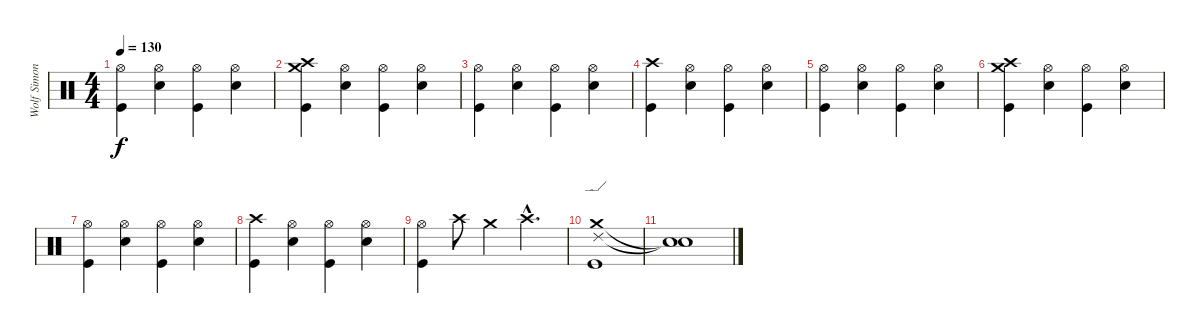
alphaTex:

\track ("Wolf Simon" "Wolf Simon") {instrument percussion}
\staff {score}
\articulation defaults
\ts (4 4)
\tempo 130
\clef neutral
\ks c
("Hi-Hat (open)" "Kick (hit)").4{dy f} ("Hi-Hat (open)" "Electric Snare (hit)").4 ("Hi-Hat (open)" "Kick (hit)").4 ("Hi-Hat (open)" "Electric Snare (hit)").4 |
("Crash medium (hit)" "Crash high (hit)" "Kick (hit)").4 ("Hi-Hat (open)" "Electric Snare (hit)").4 ("Hi-Hat (open)" "Kick (hit)").4 ("Hi-Hat (open)" "Electric Snare (hit)").4 |
("Hi-Hat (open)" "Kick (hit)").4 ("Hi-Hat (open)" "Electric Snare (hit)").4 ("Hi-Hat (open)" "Kick (hit)").4 ("Hi-Hat (open)" "Electric Snare (hit)").4 |
("Crash high (hit)" "Kick (hit)").4 ("Hi-Hat (open)" "Electric Snare (hit)").4 ("Hi-Hat (open)" "Kick (hit)").4 ("Hi-Hat (open)" "Electric Snare (hit)").4 |
("Hi-Hat (open)" "Kick (hit)").4 ("Hi-Hat (open)" "Electric Snare (hit)").4 ("Hi-Hat (open)" "Kick (hit)").4 ("Hi-Hat (open)" "Electric Snare (hit)").4 |
("Crash medium (hit)" "Crash high (hit)" "Kick (hit)").4 ("Hi-Hat (open)" "Electric Snare (hit)").4 ("Hi-Hat (open)" "Kick (hit)").4 ("Hi-Hat (open)" "Electric Snare (hit)").4 |
("Hi-Hat (open)" "Kick (hit)").4 ("Hi-Hat (open)" "Electric Snare (hit)").4 ("Hi-Hat (open)" "Kick (hit)").4 ("Hi-Hat (open)" "Electric Snare (hit)").4 |
("Crash high (hit)" "Kick (hit)").4 ("Hi-Hat (open)" "Electric Snare (hit)").4 ("Hi-Hat (open)" "Kick (hit)").4 ("Hi-Hat (open)" "Electric Snare (hit)").4 |
("Hi-Hat (open)" "Kick (hit)").4 "Crash high (hit)".8 "Crash medium (hit)".4 "Crash high (hit)"{hac}.4{d} |
("Ride (edge) 2" "Crash medium (hit)" "Kick (hit)").1 |
("Snare (hit)"{t} "Snare (hit)"{t}).1
